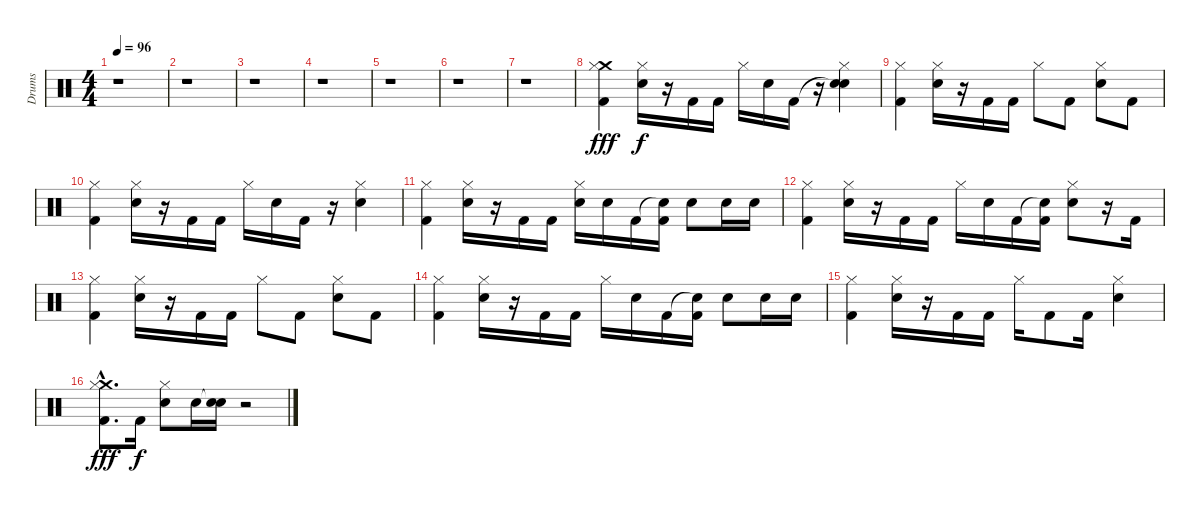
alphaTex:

\track ("Drums" "Drums") {instrument percussion}
\staff {score}
\articulation defaults
\ts (4 4)
\tempo 96
\clef neutral
\ks c
r.1{dy fff} |
r.1 |
r.1 |
r.1 |
r.1 |
r.1 |
r.1 |
("Crash medium (hit)" "Hi-Hat (closed)" "Kick (hit) 2").4 ("Hi-Hat (closed)" "Snare (hit) 2").16{dy f} r.16 "Kick (hit) 2".16 "Kick (hit) 2".16 "Hi-Hat (closed)".16 "Snare (hit) 2".16 "Kick (hit) 2".16 r.16 ("Snare (hit)"{t} "Hi-Hat (closed)" "Snare (hit) 2").4 |
("Hi-Hat (closed)" "Kick (hit) 2").4 ("Hi-Hat (closed)" "Snare (hit) 2").16 r.16 "Kick (hit) 2".16 "Kick (hit) 2".16 "Hi-Hat (closed)".8 "Kick (hit) 2".8 ("Hi-Hat (closed)" "Snare (hit) 2").8 "Kick (hit) 2".8 |
("Hi-Hat (closed)" "Kick (hit) 2").4 ("Hi-Hat (closed)" "Snare (hit) 2").16 r.16 "Kick (hit) 2".16 "Kick (hit) 2".16 "Hi-Hat (closed)".16 "Snare (hit) 2".16 "Kick (hit) 2".16 r.16 ("Hi-Hat (closed)" "Snare (hit) 2").4 |
("Hi-Hat (closed)" "Kick (hit) 2").4 ("Hi-Hat (closed)" "Snare (hit) 2").16 r.16 "Kick (hit) 2".16 "Kick (hit) 2".16 ("Hi-Hat (closed)" "Snare (hit) 2").16 "Snare (hit) 2".16 "Kick (hit) 2".16 ("Snare (hit)"{t} "Kick (hit) 2").16 "Snare (hit) 2".8 "Snare (hit) 2".16 "Snare (hit) 2".16 |
("Hi-Hat (closed)" "Kick (hit) 2").4 ("Hi-Hat (closed)" "Snare (hit) 2").16 r.16 "Kick (hit) 2".16 "Kick (hit) 2".16 "Hi-Hat (closed)".16 "Snare (hit) 2".16 "Kick (hit) 2".16 ("Snare (hit)"{t} "Kick (hit) 2").16 ("Hi-Hat (closed)" "Snare (hit) 2").8 r.16 "Kick (hit) 2".16 |
("Hi-Hat (closed)" "Kick (hit) 2").4 ("Hi-Hat (closed)" "Snare (hit) 2").16 r.16 "Kick (hit) 2".16 "Kick (hit) 2".16 "Hi-Hat (closed)".8 "Kick (hit) 2".8 ("Hi-Hat (closed)" "Snare (hit) 2").8 "Kick (hit) 2".8 |
("Hi-Hat (closed)" "Kick (hit) 2").4 ("Hi-Hat (closed)" "Snare (hit) 2").16 r.16 "Kick (hit) 2".16 "Kick (hit) 2".16 "Hi-Hat (closed)".16 "Snare (hit) 2".16 "Kick (hit) 2".16 ("Snare (hit)"{t} "Kick (hit) 2").16 "Snare (hit) 2".8 "Snare (hit) 2".16 "Snare (hit) 2".16 |
("Hi-Hat (closed)" "Kick (hit) 2").4 ("Hi-Hat (closed)" "Snare (hit) 2").16 r.16 "Kick (hit) 2".16 "Kick (hit) 2".16 "Hi-Hat (closed)".16 "Kick (hit) 2".8 "Kick (hit) 2".16 ("Hi-Hat (closed)" "Snare (hit) 2").4 |
("Crash medium (hit)"{hac} "Hi-Hat (closed)"{hac} "Kick (hit) 2"{hac}).8{d dy fff} "Kick (hit) 2".16{dy f} ("Hi-Hat (closed)" "Snare (hit) 2").8 "Snare (hit) 2".16 ("Snare (hit)"{t} "Snare (hit) 2").16 r.2
